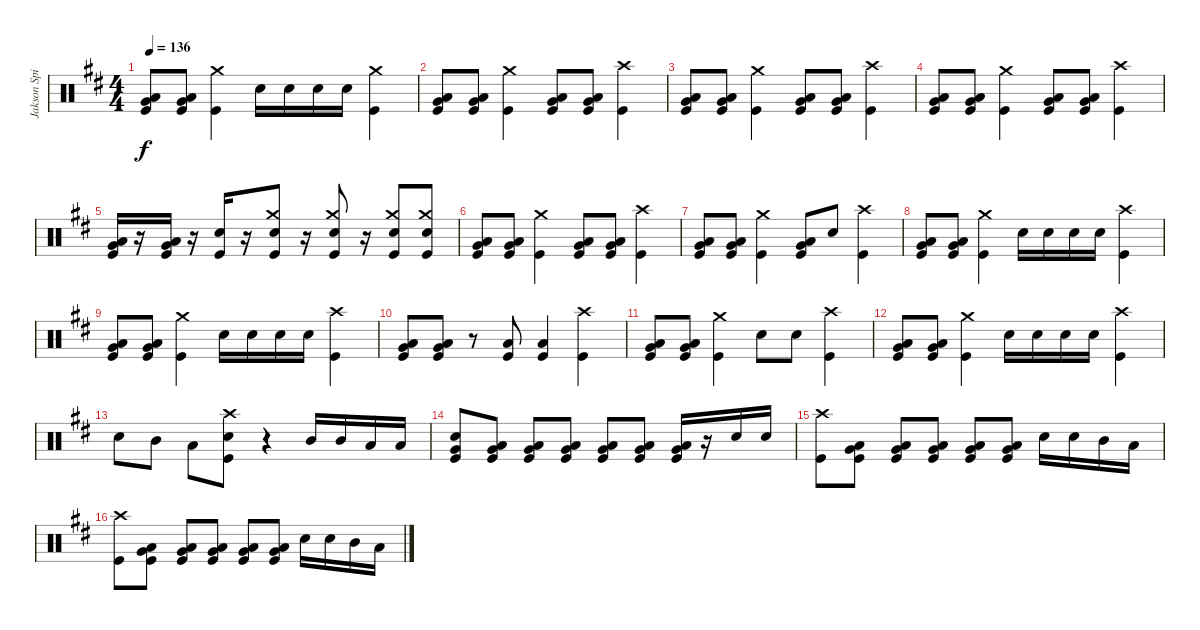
\track ("Jakson Spires Drums" "Jakson Spi") {instrument percussion}
\staff {score}
\articulation defaults
\ts (4 4)
\tempo 136
\clef neutral
\ks d
("Low Tom (hit)" "Very Low Tom (hit)" "Kick (hit)").8{dy f} ("Low Tom (hit)" "Very Low Tom (hit)" "Kick (hit)").8 ("Crash medium (hit)" "Kick (hit)").4 "Snare (hit) 2".16 "Snare (hit) 2".16 "Snare (hit) 2".16 "Snare (hit) 2".16 ("Crash medium (hit)" "Kick (hit)").4 |
("Low Tom (hit)" "Very Low Tom (hit)" "Kick (hit)").8 ("Low Tom (hit)" "Very Low Tom (hit)" "Kick (hit)").8 ("Crash medium (hit)" "Kick (hit)").4 ("Low Tom (hit)" "Very Low Tom (hit)" "Kick (hit)").8 ("Low Tom (hit)" "Very Low Tom (hit)" "Kick (hit)").8 ("Crash high (hit)" "Kick (hit)").4 |
("Low Tom (hit)" "Very Low Tom (hit)" "Kick (hit)").8 ("Low Tom (hit)" "Very Low Tom (hit)" "Kick (hit)").8 ("Crash medium (hit)" "Kick (hit)").4 ("Low Tom (hit)" "Very Low Tom (hit)" "Kick (hit)").8 ("Low Tom (hit)" "Very Low Tom (hit)" "Kick (hit)").8 ("Crash high (hit)" "Kick (hit)").4 |
("Low Tom (hit)" "Very Low Tom (hit)" "Kick (hit)").8 ("Low Tom (hit)" "Very Low Tom (hit)" "Kick (hit)").8 ("Crash medium (hit)" "Kick (hit)").4 ("Low Tom (hit)" "Very Low Tom (hit)" "Kick (hit)").8 ("Low Tom (hit)" "Very Low Tom (hit)" "Kick (hit)").8 ("Crash high (hit)" "Kick (hit)").4 |
("Very Low Tom (hit)" "Low Floor Tom (hit)" "Kick (hit)").16 r.16 ("Very Low Tom (hit)" "Low Floor Tom (hit)" "Kick (hit)").16 r.16 ("Snare (hit) 2" "Kick (hit)").16 r.16 ("Crash medium (hit)" "Snare (hit) 2" "Kick (hit)").8 r.16 ("Crash medium (hit)" "Snare (hit) 2" "Kick (hit)").8 r.16 ("Crash medium (hit)" "Snare (hit) 2" "Kick (hit)").8 ("Crash medium (hit)" "Snare (hit) 2" "Kick (hit)").8 |
("Low Tom (hit)" "Very Low Tom (hit)" "Kick (hit)").8 ("Low Tom (hit)" "Very Low Tom (hit)" "Kick (hit)").8 ("Crash medium (hit)" "Kick (hit)").4 ("Low Tom (hit)" "Very Low Tom (hit)" "Kick (hit)").8 ("Low Tom (hit)" "Very Low Tom (hit)" "Kick (hit)").8 ("Crash high (hit)" "Kick (hit)").4 |
("Low Tom (hit)" "Very Low Tom (hit)" "Kick (hit)").8 ("Low Tom (hit)" "Very Low Tom (hit)" "Kick (hit)").8 ("Crash medium (hit)" "Kick (hit)").4 ("Low Tom (hit)" "Very Low Tom (hit)" "Kick (hit)").8 "Snare (hit) 2".8 ("Crash high (hit)" "Kick (hit)").4 |
("Low Tom (hit)" "Very Low Tom (hit)" "Kick (hit)").8 ("Low Tom (hit)" "Very Low Tom (hit)" "Kick (hit)").8 ("Crash medium (hit)" "Kick (hit)").4 "Snare (hit) 2".16 "Snare (hit) 2".16 "Snare (hit) 2".16 "Snare (hit) 2".16 ("Crash high (hit)" "Kick (hit)").4 |
("Low Tom (hit)" "Very Low Tom (hit)" "Kick (hit)").8 ("Low Tom (hit)" "Very Low Tom (hit)" "Kick (hit)").8 ("Crash medium (hit)" "Kick (hit)").4 "Snare (hit) 2".16 "Snare (hit) 2".16 "Snare (hit) 2".16 "Snare (hit) 2".16 ("Crash high (hit)" "Kick (hit)").4 |
("Very Low Tom (hit)" "Low Floor Tom (hit)" "Kick (hit)").8 ("Very Low Tom (hit)" "Low Floor Tom (hit)" "Kick (hit)").8 r.8 ("Low Tom (hit)" "Kick (hit)").8 ("Low Tom (hit)" "Kick (hit)").4 ("Crash high (hit)" "Kick (hit)").4 |
("Low Tom (hit)" "Very Low Tom (hit)" "Kick (hit)").8 ("Low Tom (hit)" "Very Low Tom (hit)" "Kick (hit)").8 ("Crash medium (hit)" "Kick (hit)").4 "Snare (hit) 2".8 "Snare (hit) 2".8 ("Crash high (hit)" "Kick (hit)").4 |
("Low Tom (hit)" "Very Low Tom (hit)" "Kick (hit)").8 ("Low Tom (hit)" "Very Low Tom (hit)" "Kick (hit)").8 ("Crash medium (hit)" "Kick (hit)").4 "Snare (hit) 2".16 "Snare (hit) 2".16 "Snare (hit) 2".16 "Snare (hit) 2".16 ("Crash high (hit)" "Kick (hit)").4 |
"Snare (hit) 2".8 "Mid Tom (hit)".8 "Low Tom (hit)".8 ("Crash high (hit)" "Snare (hit) 2" "Kick (hit)").8 r.4 "Mid Tom (hit)".16 "Mid Tom (hit)".16 "Low Tom (hit)".16 "Low Tom (hit)".16 |
("Snare (hit) 2" "Very Low Tom (hit)" "Kick (hit)").8 ("Low Tom (hit)" "Very Low Tom (hit)" "Kick (hit)").8 ("Low Tom (hit)" "Very Low Tom (hit)" "Kick (hit)").8 ("Low Tom (hit)" "Very Low Tom (hit)" "Kick (hit)").8 ("Low Tom (hit)" "Very Low Tom (hit)" "Kick (hit)").8 ("Low Tom (hit)" "Very Low Tom (hit)" "Kick (hit)").8 ("Low Tom (hit)" "Very Low Tom (hit)" "Kick (hit)").16 r.16 "Snare (hit) 2".16 "Snare (hit) 2".16 |
("Crash high (hit)" "Kick (hit)").8 ("Low Tom (hit)" "Very Low Tom (hit)" "Kick (hit)").8 ("Low Tom (hit)" "Very Low Tom (hit)" "Kick (hit)").8 ("Low Tom (hit)" "Very Low Tom (hit)" "Kick (hit)").8 ("Low Tom (hit)" "Very Low Tom (hit)" "Kick (hit)").8 ("Low Tom (hit)" "Very Low Tom (hit)" "Kick (hit)").8 "Snare (hit) 2".16 "Snare (hit) 2".16 "Mid Tom (hit)".16 "Low Tom (hit)".16 |
("Crash high (hit)" "Kick (hit)").8 ("Low Tom (hit)" "Very Low Tom (hit)" "Kick (hit)").8 ("Low Tom (hit)" "Very Low Tom (hit)" "Kick (hit)").8 ("Low Tom (hit)" "Very Low Tom (hit)" "Kick (hit)").8 ("Low Tom (hit)" "Very Low Tom (hit)" "Kick (hit)").8 ("Low Tom (hit)" "Very Low Tom (hit)" "Kick (hit)").8 "Snare (hit) 2".16 "Snare (hit) 2".16 "Mid Tom (hit)".16 "Low Tom (hit)".16
